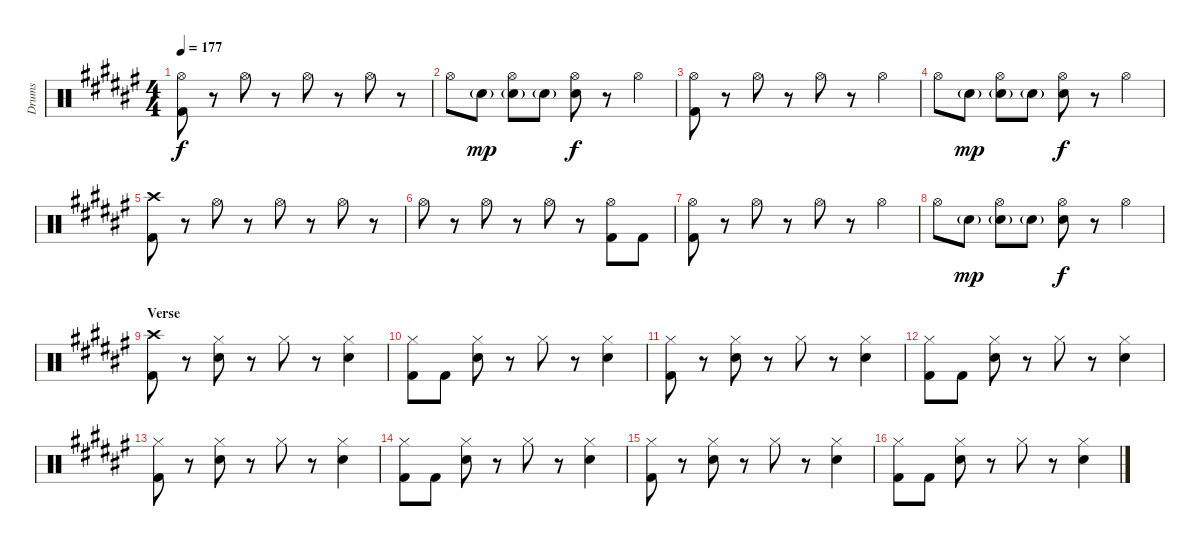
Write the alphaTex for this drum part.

\track ("Drums" "Drums") {instrument percussion}
\staff {score}
\articulation defaults
\ts (4 4)
\tempo 177
\clef neutral
\ks d#minor
("Hi-Hat (open)" "Kick (hit) 2").8{dy f} r.8 "Hi-Hat (open)".8 r.8 "Hi-Hat (open)".8 r.8 "Hi-Hat (open)".8 r.8 |
"Hi-Hat (open)".8 "Snare (hit) 2"{g}.8{dy mp} ("Hi-Hat (open)" "Snare (hit) 2"{g}).8 "Snare (hit) 2"{g}.8 ("Hi-Hat (open)" "Snare (hit) 2").8{dy f} r.8 "Hi-Hat (open)".4 |
("Hi-Hat (open)" "Kick (hit) 2").8 r.8 "Hi-Hat (open)".8 r.8 "Hi-Hat (open)".8 r.8 "Hi-Hat (open)".4 |
"Hi-Hat (open)".8 "Snare (hit) 2"{g}.8{dy mp} ("Hi-Hat (open)" "Snare (hit) 2"{g}).8 "Snare (hit) 2"{g}.8 ("Hi-Hat (open)" "Snare (hit) 2").8{dy f} r.8 "Hi-Hat (open)".4 |
("Crash high (hit)" "Kick (hit) 2").8 r.8 "Hi-Hat (open)".8 r.8 "Hi-Hat (open)".8 r.8 "Hi-Hat (open)".8 r.8 |
"Hi-Hat (open)".8 r.8 "Hi-Hat (open)".8 r.8 "Hi-Hat (open)".8 r.8 ("Hi-Hat (open)" "Kick (hit) 2").8 "Kick (hit) 2".8 |
("Hi-Hat (open)" "Kick (hit) 2").8 r.8 "Hi-Hat (open)".8 r.8 "Hi-Hat (open)".8 r.8 "Hi-Hat (open)".4 |
"Hi-Hat (open)".8 "Snare (hit) 2"{g}.8{dy mp} ("Hi-Hat (open)" "Snare (hit) 2"{g}).8 "Snare (hit) 2"{g}.8 ("Hi-Hat (open)" "Snare (hit) 2").8{dy f} r.8 "Hi-Hat (open)".4 |
\section ("" "Verse")
("Crash high (hit)" "Kick (hit) 2").8 r.8 ("Hi-Hat (closed)" "Snare (hit) 2").8 r.8 "Hi-Hat (closed)".8 r.8 ("Hi-Hat (closed)" "Snare (hit) 2").4 |
("Hi-Hat (closed)" "Kick (hit) 2").8 "Kick (hit) 2".8 ("Hi-Hat (closed)" "Snare (hit) 2").8 r.8 "Hi-Hat (closed)".8 r.8 ("Hi-Hat (closed)" "Snare (hit) 2").4 |
("Hi-Hat (closed)" "Kick (hit) 2").8 r.8 ("Hi-Hat (closed)" "Snare (hit) 2").8 r.8 "Hi-Hat (closed)".8 r.8 ("Hi-Hat (closed)" "Snare (hit) 2").4 |
("Hi-Hat (closed)" "Kick (hit) 2").8 "Kick (hit) 2".8 ("Hi-Hat (closed)" "Snare (hit) 2").8 r.8 "Hi-Hat (closed)".8 r.8 ("Hi-Hat (closed)" "Snare (hit) 2").4 |
("Hi-Hat (closed)" "Kick (hit) 2").8 r.8 ("Hi-Hat (closed)" "Snare (hit) 2").8 r.8 "Hi-Hat (closed)".8 r.8 ("Hi-Hat (closed)" "Snare (hit) 2").4 |
("Hi-Hat (closed)" "Kick (hit) 2").8 "Kick (hit) 2".8 ("Hi-Hat (closed)" "Snare (hit) 2").8 r.8 "Hi-Hat (closed)".8 r.8 ("Hi-Hat (closed)" "Snare (hit) 2").4 |
("Hi-Hat (closed)" "Kick (hit) 2").8 r.8 ("Hi-Hat (closed)" "Snare (hit) 2").8 r.8 "Hi-Hat (closed)".8 r.8 ("Hi-Hat (closed)" "Snare (hit) 2").4 |
("Hi-Hat (closed)" "Kick (hit) 2").8 "Kick (hit) 2".8 ("Hi-Hat (closed)" "Snare (hit) 2").8 r.8 "Hi-Hat (closed)".8 r.8 ("Hi-Hat (closed)" "Snare (hit) 2").4
